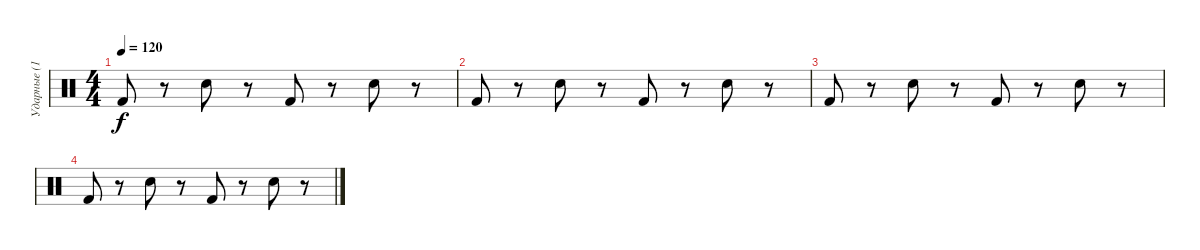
\track ("Ударные (12,36-залп) " "Ударные (1") {instrument percussion}
\staff {score}
\articulation defaults
\ts (4 4)
\tempo 120
\clef neutral
\ks aminor "Kick (hit) 2".8{dy f}
r.8 "Snare (hit) 2".8 r.8 "Kick (hit) 2".8 r.8 "Snare (hit) 2".8 r.8 |
"Kick (hit) 2".8 r.8 "Snare (hit) 2".8 r.8 "Kick (hit) 2".8 r.8 "Snare (hit) 2".8 r.8 |
"Kick (hit) 2".8 r.8 "Snare (hit) 2".8 r.8 "Kick (hit) 2".8 r.8 "Snare (hit) 2".8 r.8 |
"Kick (hit) 2".8 r.8 "Snare (hit) 2".8 r.8 "Kick (hit) 2".8 r.8 "Snare (hit) 2".8 r.8
